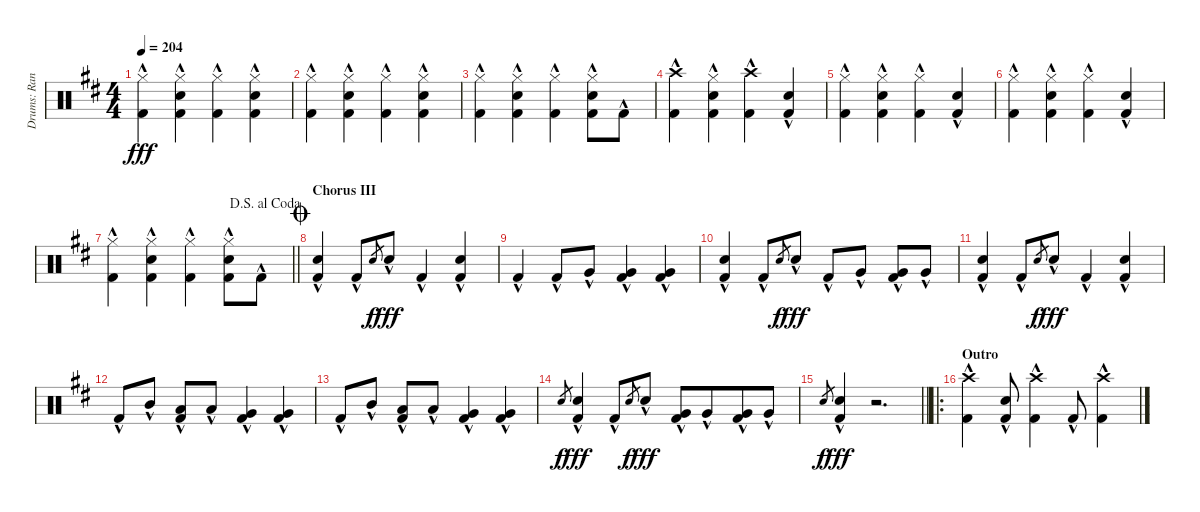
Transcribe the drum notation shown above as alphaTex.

\track ("Drums: Randy" "Drums: Ran") {instrument percussion}
\staff {score}
\articulation defaults
\ts (4 4)
\tempo 204
\clef neutral
\ks d
("Hi-Hat (closed)"{hac} "Kick (hit) 2"{hac}).4{dy fff} ("Hi-Hat (closed)"{hac} "Snare (hit) 2"{hac} "Kick (hit) 2"{hac}).4 ("Hi-Hat (closed)"{hac} "Kick (hit) 2"{hac}).4 ("Hi-Hat (closed)"{hac} "Snare (hit) 2"{hac} "Kick (hit) 2"{hac}).4 |
("Hi-Hat (closed)"{hac} "Kick (hit) 2"{hac}).4 ("Hi-Hat (closed)"{hac} "Snare (hit) 2"{hac} "Kick (hit) 2"{hac}).4 ("Hi-Hat (closed)"{hac} "Kick (hit) 2"{hac}).4 ("Hi-Hat (closed)"{hac} "Snare (hit) 2"{hac} "Kick (hit) 2"{hac}).4 |
("Hi-Hat (closed)"{hac} "Kick (hit) 2"{hac}).4 ("Hi-Hat (closed)"{hac} "Snare (hit) 2"{hac} "Kick (hit) 2"{hac}).4 ("Hi-Hat (closed)"{hac} "Kick (hit) 2"{hac}).4 ("Hi-Hat (closed)"{hac} "Snare (hit) 2"{hac} "Kick (hit) 2"{hac}).8 "Kick (hit) 2"{hac}.8 |
("Crash high (hit)"{hac} "Kick (hit) 2"{hac}).4 ("Hi-Hat (closed)"{hac} "Snare (hit) 2"{hac} "Kick (hit) 2"{hac}).4 ("Crash high (hit)"{hac} "Kick (hit) 2"{hac}).4 ("Snare (hit) 2"{hac} "Kick (hit) 2"{hac}).4 |
("Hi-Hat (closed)"{hac} "Kick (hit) 2"{hac}).4 ("Hi-Hat (closed)"{hac} "Snare (hit) 2"{hac} "Kick (hit) 2"{hac}).4 ("Hi-Hat (closed)"{hac} "Kick (hit) 2"{hac}).4 ("Snare (hit) 2"{hac} "Kick (hit) 2"{hac}).4 |
("Hi-Hat (closed)"{hac} "Kick (hit) 2"{hac}).4 ("Hi-Hat (closed)"{hac} "Snare (hit) 2"{hac} "Kick (hit) 2"{hac}).4 ("Hi-Hat (closed)"{hac} "Kick (hit) 2"{hac}).4 ("Snare (hit) 2"{hac} "Kick (hit) 2"{hac}).4 |
\jump dalsegnoalcoda
\barLineRight lightlight
("Hi-Hat (closed)"{hac} "Kick (hit) 2"{hac}).4 ("Hi-Hat (closed)"{hac} "Snare (hit) 2"{hac} "Kick (hit) 2"{hac}).4 ("Hi-Hat (closed)"{hac} "Kick (hit) 2"{hac}).4 ("Hi-Hat (closed)"{hac} "Snare (hit) 2"{hac} "Kick (hit) 2"{hac}).8 "Kick (hit) 2"{hac}.8 |
\section ("" "Chorus III")
\jump coda
("Snare (hit) 2"{hac} "Kick (hit) 2"{hac}).4 "Kick (hit) 2"{hac}.8 "Snare (hit) 2".8{gr dy f} "Snare (hit) 2"{hac}.8{dy fff} "Kick (hit) 2"{hac}.4 ("Snare (hit) 2"{hac} "Kick (hit) 2"{hac}).4 |
"Kick (hit) 2"{hac}.4 "Kick (hit) 2"{hac}.8 "Very Low Tom (hit)"{hac}.8 ("Very Low Tom (hit)"{hac} "Kick (hit) 2"{hac}).4 ("Very Low Tom (hit)"{hac} "Kick (hit) 2"{hac}).4 |
("Snare (hit) 2"{hac} "Kick (hit) 2"{hac}).4 "Kick (hit) 2"{hac}.8 "Snare (hit) 2".8{gr dy f} "Snare (hit) 2"{hac}.8{dy fff} "Kick (hit) 2"{hac}.8 "Very Low Tom (hit)"{hac}.8 ("Very Low Tom (hit)"{hac} "Kick (hit) 2"{hac}).8 "Very Low Tom (hit)"{hac}.8 |
("Snare (hit) 2"{hac} "Kick (hit) 2"{hac}).4 "Kick (hit) 2"{hac}.8 "Snare (hit) 2".8{gr dy f} "Snare (hit) 2"{hac}.8{dy fff} "Kick (hit) 2"{hac}.4 ("Snare (hit) 2"{hac} "Kick (hit) 2"{hac}).4 |
"Kick (hit) 2"{hac}.8 "Mid Tom (hit)"{hac}.8 ("Low Tom (hit)"{hac} "Kick (hit) 2"{hac}).8 "Low Tom (hit)"{hac}.8 ("Very Low Tom (hit)"{hac} "Kick (hit) 2"{hac}).4 ("Very Low Tom (hit)"{hac} "Kick (hit) 2"{hac}).4 |
"Kick (hit) 2"{hac}.8 "Mid Tom (hit)"{hac}.8 ("Low Tom (hit)"{hac} "Kick (hit) 2"{hac}).8 "Low Tom (hit)"{hac}.8 ("Very Low Tom (hit)"{hac} "Kick (hit) 2"{hac}).4 ("Very Low Tom (hit)"{hac} "Kick (hit) 2"{hac}).4 |
"Snare (hit) 2".8{gr dy f} ("Snare (hit) 2"{hac} "Kick (hit) 2"{hac}).4{dy fff} "Kick (hit) 2"{hac}.8 "Snare (hit) 2".8{gr dy f} "Snare (hit) 2"{hac}.8{dy fff} ("Very Low Tom (hit)"{hac} "Kick (hit) 2"{hac}).8 "Very Low Tom (hit)"{hac}.8{beam merge} ("Very Low Tom (hit)"{hac} "Kick (hit) 2"{hac}).8 "Very Low Tom (hit)"{hac}.8 |
\barLineRight lightlight "Snare (hit) 2".8{gr dy f}
("Snare (hit) 2"{hac} "Kick (hit) 2"{hac}).4{dy fff} r.2{d} |
\ro
\section ("" "Outro")
("Crash high (hit)"{hac} "Kick (hit) 2"{hac}).4 ("Snare (hit) 2"{hac} "Kick (hit) 2"{hac}).8 ("Crash high (hit)"{hac} "Kick (hit) 2"{hac}).4 "Kick (hit) 2"{hac}.8 ("Crash high (hit)"{hac} "Kick (hit) 2"{hac}).4
